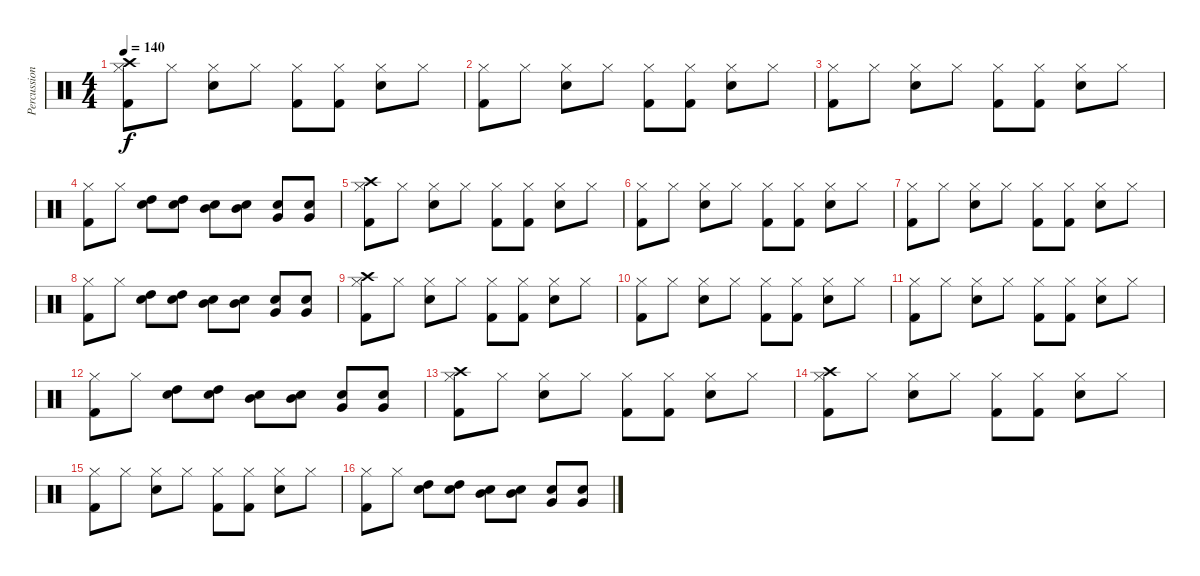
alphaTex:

\track ("Percussion" "Percussion") {instrument percussion}
\staff {score}
\articulation defaults
\ts (4 4)
\tempo 140
\clef neutral
\ks c
("Kick (hit) 2" "Hi-Hat (closed)" "Crash high (hit)").8{dy f} "Hi-Hat (closed)".8 ("Electric Snare (hit)" "Hi-Hat (closed)").8 "Hi-Hat (closed)".8 ("Kick (hit) 2" "Hi-Hat (closed)").8 ("Kick (hit) 2" "Hi-Hat (closed)").8 ("Electric Snare (hit)" "Hi-Hat (closed)").8 "Hi-Hat (closed)".8 |
("Kick (hit) 2" "Hi-Hat (closed)").8 "Hi-Hat (closed)".8 ("Electric Snare (hit)" "Hi-Hat (closed)").8 "Hi-Hat (closed)".8 ("Kick (hit) 2" "Hi-Hat (closed)").8 ("Kick (hit) 2" "Hi-Hat (closed)").8 ("Electric Snare (hit)" "Hi-Hat (closed)").8 "Hi-Hat (closed)".8 |
("Kick (hit) 2" "Hi-Hat (closed)").8 "Hi-Hat (closed)".8 ("Electric Snare (hit)" "Hi-Hat (closed)").8 "Hi-Hat (closed)".8 ("Kick (hit) 2" "Hi-Hat (closed)").8 ("Kick (hit) 2" "Hi-Hat (closed)").8 ("Electric Snare (hit)" "Hi-Hat (closed)").8 "Hi-Hat (closed)".8 |
("Kick (hit) 2" "Hi-Hat (closed)").8 "Hi-Hat (closed)".8 ("Electric Snare (hit)" "High Tom (hit)").8 ("Electric Snare (hit)" "High Tom (hit)").8 ("Electric Snare (hit)" "Mid Tom (hit)").8 ("Electric Snare (hit)" "Mid Tom (hit)").8 ("Electric Snare (hit)" "Very Low Tom (hit)").8 ("Electric Snare (hit)" "Very Low Tom (hit)").8 |
("Kick (hit) 2" "Hi-Hat (closed)" "Crash high (hit)").8 "Hi-Hat (closed)".8 ("Electric Snare (hit)" "Hi-Hat (closed)").8 "Hi-Hat (closed)".8 ("Kick (hit) 2" "Hi-Hat (closed)").8 ("Kick (hit) 2" "Hi-Hat (closed)").8 ("Electric Snare (hit)" "Hi-Hat (closed)").8 "Hi-Hat (closed)".8 |
("Kick (hit) 2" "Hi-Hat (closed)").8 "Hi-Hat (closed)".8 ("Electric Snare (hit)" "Hi-Hat (closed)").8 "Hi-Hat (closed)".8 ("Kick (hit) 2" "Hi-Hat (closed)").8 ("Kick (hit) 2" "Hi-Hat (closed)").8 ("Electric Snare (hit)" "Hi-Hat (closed)").8 "Hi-Hat (closed)".8 |
("Kick (hit) 2" "Hi-Hat (closed)").8 "Hi-Hat (closed)".8 ("Electric Snare (hit)" "Hi-Hat (closed)").8 "Hi-Hat (closed)".8 ("Kick (hit) 2" "Hi-Hat (closed)").8 ("Kick (hit) 2" "Hi-Hat (closed)").8 ("Electric Snare (hit)" "Hi-Hat (closed)").8 "Hi-Hat (closed)".8 |
("Kick (hit) 2" "Hi-Hat (closed)").8 "Hi-Hat (closed)".8 ("Electric Snare (hit)" "High Tom (hit)").8 ("Electric Snare (hit)" "High Tom (hit)").8 ("Electric Snare (hit)" "Mid Tom (hit)").8 ("Electric Snare (hit)" "Mid Tom (hit)").8 ("Electric Snare (hit)" "Very Low Tom (hit)").8 ("Electric Snare (hit)" "Very Low Tom (hit)").8 |
("Kick (hit) 2" "Hi-Hat (closed)" "Crash high (hit)").8 "Hi-Hat (closed)".8 ("Electric Snare (hit)" "Hi-Hat (closed)").8 "Hi-Hat (closed)".8 ("Kick (hit) 2" "Hi-Hat (closed)").8 ("Kick (hit) 2" "Hi-Hat (closed)").8 ("Electric Snare (hit)" "Hi-Hat (closed)").8 "Hi-Hat (closed)".8 |
("Kick (hit) 2" "Hi-Hat (closed)").8 "Hi-Hat (closed)".8 ("Electric Snare (hit)" "Hi-Hat (closed)").8 "Hi-Hat (closed)".8 ("Kick (hit) 2" "Hi-Hat (closed)").8 ("Kick (hit) 2" "Hi-Hat (closed)").8 ("Electric Snare (hit)" "Hi-Hat (closed)").8 "Hi-Hat (closed)".8 |
("Kick (hit) 2" "Hi-Hat (closed)").8 "Hi-Hat (closed)".8 ("Electric Snare (hit)" "Hi-Hat (closed)").8 "Hi-Hat (closed)".8 ("Kick (hit) 2" "Hi-Hat (closed)").8 ("Kick (hit) 2" "Hi-Hat (closed)").8 ("Electric Snare (hit)" "Hi-Hat (closed)").8 "Hi-Hat (closed)".8 |
("Kick (hit) 2" "Hi-Hat (closed)").8 "Hi-Hat (closed)".8 ("Electric Snare (hit)" "High Tom (hit)").8 ("Electric Snare (hit)" "High Tom (hit)").8 ("Electric Snare (hit)" "Mid Tom (hit)").8 ("Electric Snare (hit)" "Mid Tom (hit)").8 ("Electric Snare (hit)" "Very Low Tom (hit)").8 ("Electric Snare (hit)" "Very Low Tom (hit)").8 |
("Kick (hit) 2" "Hi-Hat (closed)" "Crash high (hit)").8 "Hi-Hat (closed)".8 ("Electric Snare (hit)" "Hi-Hat (closed)").8 "Hi-Hat (closed)".8 ("Kick (hit) 2" "Hi-Hat (closed)").8 ("Kick (hit) 2" "Hi-Hat (closed)").8 ("Electric Snare (hit)" "Hi-Hat (closed)").8 "Hi-Hat (closed)".8 |
("Kick (hit) 2" "Hi-Hat (closed)" "Crash high (hit)").8 "Hi-Hat (closed)".8 ("Electric Snare (hit)" "Hi-Hat (closed)").8 "Hi-Hat (closed)".8 ("Kick (hit) 2" "Hi-Hat (closed)").8 ("Kick (hit) 2" "Hi-Hat (closed)").8 ("Electric Snare (hit)" "Hi-Hat (closed)").8 "Hi-Hat (closed)".8 |
("Kick (hit) 2" "Hi-Hat (closed)").8 "Hi-Hat (closed)".8 ("Electric Snare (hit)" "Hi-Hat (closed)").8 "Hi-Hat (closed)".8 ("Kick (hit) 2" "Hi-Hat (closed)").8 ("Kick (hit) 2" "Hi-Hat (closed)").8 ("Electric Snare (hit)" "Hi-Hat (closed)").8 "Hi-Hat (closed)".8 |
("Kick (hit) 2" "Hi-Hat (closed)").8 "Hi-Hat (closed)".8 ("Electric Snare (hit)" "High Tom (hit)").8 ("Electric Snare (hit)" "High Tom (hit)").8 ("Electric Snare (hit)" "Mid Tom (hit)").8 ("Electric Snare (hit)" "Mid Tom (hit)").8 ("Electric Snare (hit)" "Very Low Tom (hit)").8 ("Electric Snare (hit)" "Very Low Tom (hit)").8
